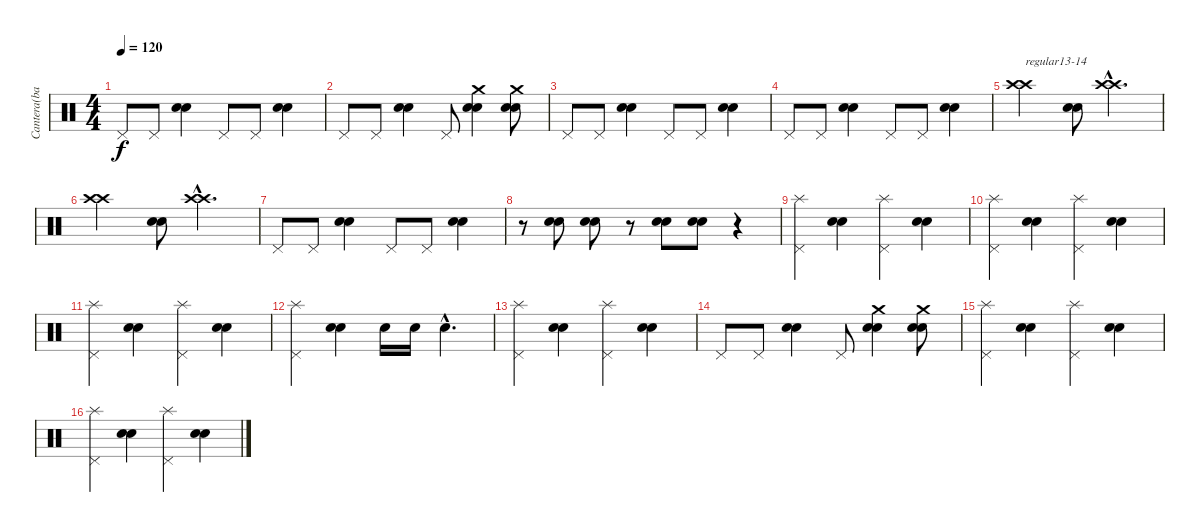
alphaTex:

\track ("Cantera(bateria)" "Cantera(ba") {instrument percussion}
\staff {score}
\articulation defaults
\ts (4 4)
\tempo 120
\clef neutral
\ks c "Pedal Hi-Hat (hit)".8{dy f} "Pedal Hi-Hat (hit)".8
("Electric Snare (hit)" "Electric Snare (hit)").4 "Pedal Hi-Hat (hit)".8 "Pedal Hi-Hat (hit)".8 ("Electric Snare (hit)" "Electric Snare (hit)").4 |
"Pedal Hi-Hat (hit)".8 "Pedal Hi-Hat (hit)".8 ("Electric Snare (hit)" "Electric Snare (hit)").4 "Pedal Hi-Hat (hit)".8 ("Electric Snare (hit)" "Electric Snare (hit)" "Crash medium (hit)").4 ("Electric Snare (hit)" "Electric Snare (hit)" "Crash medium (hit)").8 |
"Pedal Hi-Hat (hit)".8 "Pedal Hi-Hat (hit)".8 ("Electric Snare (hit)" "Electric Snare (hit)").4 "Pedal Hi-Hat (hit)".8 "Pedal Hi-Hat (hit)".8 ("Electric Snare (hit)" "Electric Snare (hit)").4 |
"Pedal Hi-Hat (hit)".8 "Pedal Hi-Hat (hit)".8 ("Electric Snare (hit)" "Electric Snare (hit)").4 "Pedal Hi-Hat (hit)".8 "Pedal Hi-Hat (hit)".8 ("Electric Snare (hit)" "Electric Snare (hit)").4 |
("Crash high (hit)" "Crash high (hit)").2{txt "regular13-14"} ("Electric Snare (hit)" "Electric Snare (hit)").8 ("Crash high (hit)"{hac} "Crash high (hit)"{hac}).4{d} |
("Crash high (hit)" "Crash high (hit)").2 ("Electric Snare (hit)" "Electric Snare (hit)").8 ("Crash high (hit)"{hac} "Crash high (hit)"{hac}).4{d} |
"Pedal Hi-Hat (hit)".8 "Pedal Hi-Hat (hit)".8 ("Electric Snare (hit)" "Electric Snare (hit)").4 "Pedal Hi-Hat (hit)".8 "Pedal Hi-Hat (hit)".8 ("Electric Snare (hit)" "Electric Snare (hit)").4 |
r.8 ("Electric Snare (hit)" "Electric Snare (hit)").8 ("Electric Snare (hit)" "Electric Snare (hit)").8 r.8 ("Electric Snare (hit)" "Electric Snare (hit)").8 ("Electric Snare (hit)" "Electric Snare (hit)").8 r.4 |
("Pedal Hi-Hat (hit)" "Splash (hit)").4 ("Electric Snare (hit)" "Electric Snare (hit)").4 ("Pedal Hi-Hat (hit)" "Splash (hit)").4 ("Electric Snare (hit)" "Electric Snare (hit)").4 |
("Pedal Hi-Hat (hit)" "Splash (hit)").4 ("Electric Snare (hit)" "Electric Snare (hit)").4 ("Pedal Hi-Hat (hit)" "Splash (hit)").4 ("Electric Snare (hit)" "Electric Snare (hit)").4 |
("Pedal Hi-Hat (hit)" "Splash (hit)").4 ("Electric Snare (hit)" "Electric Snare (hit)").4 ("Pedal Hi-Hat (hit)" "Splash (hit)").4 ("Electric Snare (hit)" "Electric Snare (hit)").4 |
("Pedal Hi-Hat (hit)" "Splash (hit)").4 ("Electric Snare (hit)" "Electric Snare (hit)").4 "Electric Snare (hit)".16 "Electric Snare (hit)".16 "Electric Snare (hit)"{hac}.4{d} |
("Pedal Hi-Hat (hit)" "Splash (hit)").4 ("Electric Snare (hit)" "Electric Snare (hit)").4 ("Pedal Hi-Hat (hit)" "Splash (hit)").4 ("Electric Snare (hit)" "Electric Snare (hit)").4 |
"Pedal Hi-Hat (hit)".8 "Pedal Hi-Hat (hit)".8 ("Electric Snare (hit)" "Electric Snare (hit)").4 "Pedal Hi-Hat (hit)".8 ("Electric Snare (hit)" "Electric Snare (hit)" "Crash medium (hit)").4 ("Electric Snare (hit)" "Electric Snare (hit)" "Crash medium (hit)").8 |
("Pedal Hi-Hat (hit)" "Splash (hit)").4 ("Electric Snare (hit)" "Electric Snare (hit)").4 ("Pedal Hi-Hat (hit)" "Splash (hit)").4 ("Electric Snare (hit)" "Electric Snare (hit)").4 |
("Pedal Hi-Hat (hit)" "Splash (hit)").4 ("Electric Snare (hit)" "Electric Snare (hit)").4 ("Pedal Hi-Hat (hit)" "Splash (hit)").4 ("Electric Snare (hit)" "Electric Snare (hit)").4
